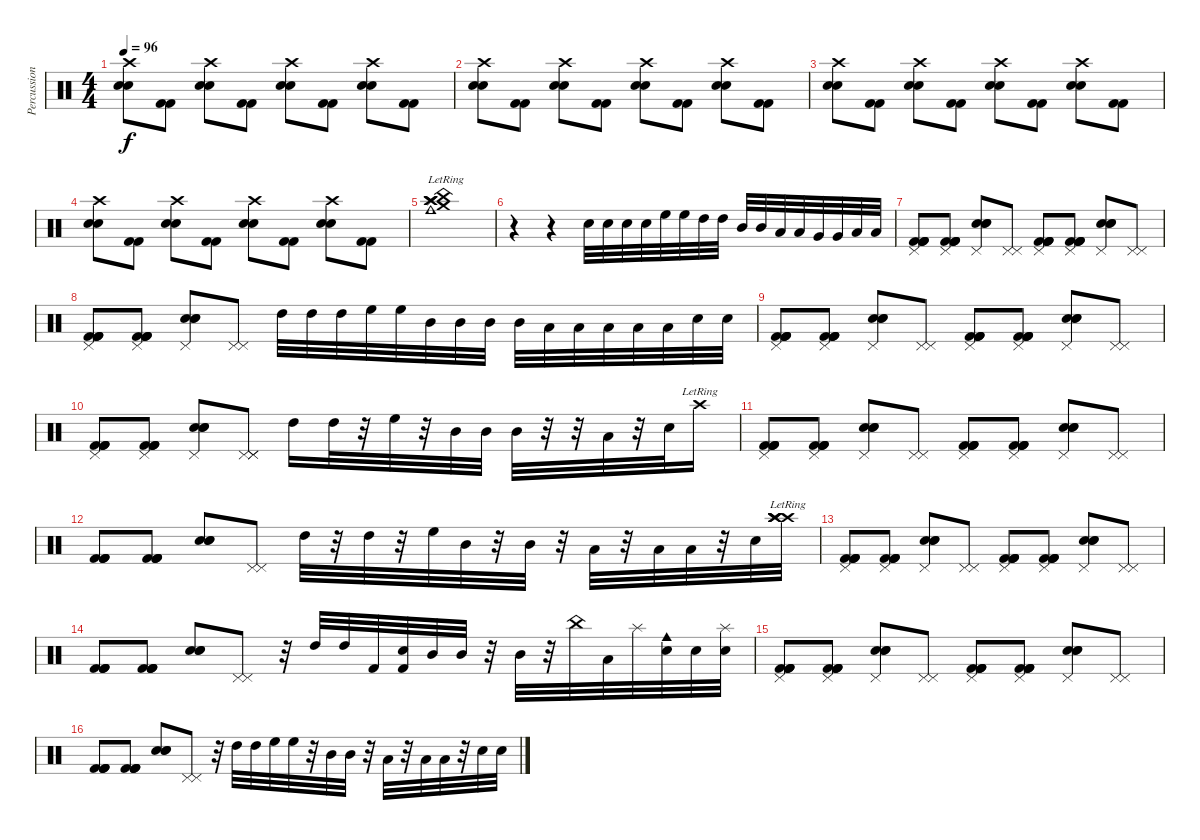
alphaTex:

\track ("Percussion" "Percussion") {instrument percussion}
\staff {score}
\articulation defaults
\ts (4 4)
\tempo 96
\clef neutral
\ks c
("Crash high (hit)" "Electric Snare (hit)" "Electric Snare (hit)").8{dy f} ("Kick (hit) 2" "Kick (hit) 2").8 ("Crash high (hit)" "Electric Snare (hit)" "Electric Snare (hit)").8 ("Kick (hit) 2" "Kick (hit) 2").8 ("Crash high (hit)" "Electric Snare (hit)" "Electric Snare (hit)").8 ("Kick (hit) 2" "Kick (hit) 2").8 ("Crash high (hit)" "Electric Snare (hit)" "Electric Snare (hit)").8 ("Kick (hit) 2" "Kick (hit) 2").8 |
("Crash high (hit)" "Electric Snare (hit)" "Electric Snare (hit)").8 ("Kick (hit) 2" "Kick (hit) 2").8 ("Crash high (hit)" "Electric Snare (hit)" "Electric Snare (hit)").8 ("Kick (hit) 2" "Kick (hit) 2").8 ("Crash high (hit)" "Electric Snare (hit)" "Electric Snare (hit)").8 ("Kick (hit) 2" "Kick (hit) 2").8 ("Crash high (hit)" "Electric Snare (hit)" "Electric Snare (hit)").8 ("Kick (hit) 2" "Kick (hit) 2").8 |
("Crash high (hit)" "Electric Snare (hit)" "Electric Snare (hit)").8 ("Kick (hit) 2" "Kick (hit) 2").8 ("Crash high (hit)" "Electric Snare (hit)" "Electric Snare (hit)").8 ("Kick (hit) 2" "Kick (hit) 2").8 ("Crash high (hit)" "Electric Snare (hit)" "Electric Snare (hit)").8 ("Kick (hit) 2" "Kick (hit) 2").8 ("Crash high (hit)" "Electric Snare (hit)" "Electric Snare (hit)").8 ("Kick (hit) 2" "Kick (hit) 2").8 |
("Crash high (hit)" "Electric Snare (hit)" "Electric Snare (hit)").8 ("Kick (hit) 2" "Kick (hit) 2").8 ("Crash high (hit)" "Electric Snare (hit)" "Electric Snare (hit)").8 ("Kick (hit) 2" "Kick (hit) 2").8 ("Crash high (hit)" "Electric Snare (hit)" "Electric Snare (hit)").8 ("Kick (hit) 2" "Kick (hit) 2").8 ("Crash high (hit)" "Electric Snare (hit)" "Electric Snare (hit)").8 ("Kick (hit) 2" "Kick (hit) 2").8 |
("Cowbell medium (hit)"{lr} "Crash high (hit)"{lr} "Crash high (hit)"{lr} "Crash medium (hit)"{lr} "China (hit)"{lr} "Splash (hit)"{lr}).1 |
r.4 r.4 "Electric Snare (hit)".32 "Electric Snare (hit)".32 "Electric Snare (hit)".32 "Electric Snare (hit)".32 "High Floor Tom (hit)".32 "High Floor Tom (hit)".32 "High Tom (hit)".32 "High Tom (hit)".32 "Mid Tom (hit)".32 "Mid Tom (hit)".32 "Low Tom (hit)".32 "Low Tom (hit)".32 "Very Low Tom (hit)".32 "Very Low Tom (hit)".32 "Low Floor Tom (hit)".32 "Low Floor Tom (hit)".32 |
("Pedal Hi-Hat (hit)" "Kick (hit) 2" "Kick (hit) 2" "Kick (hit) 2" "Kick (hit) 2").8 ("Pedal Hi-Hat (hit)" "Kick (hit) 2" "Kick (hit) 2" "Kick (hit) 2" "Kick (hit) 2").8 ("Pedal Hi-Hat (hit)" "Electric Snare (hit)" "Electric Snare (hit)" "Electric Snare (hit)").8 ("Pedal Hi-Hat (hit)" "Pedal Hi-Hat (hit)").8 ("Pedal Hi-Hat (hit)" "Kick (hit) 2" "Kick (hit) 2" "Kick (hit) 2" "Kick (hit) 2").8 ("Pedal Hi-Hat (hit)" "Kick (hit) 2" "Kick (hit) 2" "Kick (hit) 2" "Kick (hit) 2").8 ("Pedal Hi-Hat (hit)" "Electric Snare (hit)" "Electric Snare (hit)" "Electric Snare (hit)").8 ("Pedal Hi-Hat (hit)" "Pedal Hi-Hat (hit)").8 |
("Pedal Hi-Hat (hit)" "Kick (hit) 2" "Kick (hit) 2" "Kick (hit) 2" "Kick (hit) 2").8 ("Pedal Hi-Hat (hit)" "Kick (hit) 2" "Kick (hit) 2" "Kick (hit) 2" "Kick (hit) 2").8 ("Pedal Hi-Hat (hit)" "Electric Snare (hit)" "Electric Snare (hit)" "Electric Snare (hit)").8 ("Pedal Hi-Hat (hit)" "Pedal Hi-Hat (hit)").8 "High Tom (hit)".32 "High Tom (hit)".32 "High Tom (hit)".32 "High Floor Tom (hit)".32 "High Floor Tom (hit)".32 "Mid Tom (hit)".32 "Mid Tom (hit)".32 "Mid Tom (hit)".32 "Mid Tom (hit)".32 "Low Tom (hit)".32 "Low Tom (hit)".32 "Low Tom (hit)".32 "Low Floor Tom (hit)".32 "Low Floor Tom (hit)".32 "Electric Snare (hit)".32 "Electric Snare (hit)".32 |
("Pedal Hi-Hat (hit)" "Kick (hit) 2" "Kick (hit) 2" "Kick (hit) 2" "Kick (hit) 2").8 ("Pedal Hi-Hat (hit)" "Kick (hit) 2" "Kick (hit) 2" "Kick (hit) 2" "Kick (hit) 2").8 ("Pedal Hi-Hat (hit)" "Electric Snare (hit)" "Electric Snare (hit)" "Electric Snare (hit)").8 ("Pedal Hi-Hat (hit)" "Pedal Hi-Hat (hit)").8 ("Pedal Hi-Hat (hit)" "Kick (hit) 2" "Kick (hit) 2" "Kick (hit) 2" "Kick (hit) 2").8 ("Pedal Hi-Hat (hit)" "Kick (hit) 2" "Kick (hit) 2" "Kick (hit) 2" "Kick (hit) 2").8 ("Pedal Hi-Hat (hit)" "Electric Snare (hit)" "Electric Snare (hit)" "Electric Snare (hit)").8 ("Pedal Hi-Hat (hit)" "Pedal Hi-Hat (hit)").8 |
("Pedal Hi-Hat (hit)" "Kick (hit) 2" "Kick (hit) 2" "Kick (hit) 2" "Kick (hit) 2").8 ("Pedal Hi-Hat (hit)" "Kick (hit) 2" "Kick (hit) 2" "Kick (hit) 2" "Kick (hit) 2").8 ("Pedal Hi-Hat (hit)" "Electric Snare (hit)" "Electric Snare (hit)" "Electric Snare (hit)").8 ("Pedal Hi-Hat (hit)" "Pedal Hi-Hat (hit)" "Pedal Hi-Hat (hit)").8 "High Tom (hit)".16 "High Tom (hit)".32 r.32 "High Floor Tom (hit)".32 r.32 "Mid Tom (hit)".32 "Mid Tom (hit)".32 "Mid Tom (hit)".32 r.32 r.32 "Low Tom (hit)".32 r.32 "Electric Snare (hit)".32 "Crash high (hit)"{lr}.16 |
("Pedal Hi-Hat (hit)" "Kick (hit) 2" "Kick (hit) 2" "Kick (hit) 2" "Kick (hit) 2").8 ("Pedal Hi-Hat (hit)" "Kick (hit) 2" "Kick (hit) 2" "Kick (hit) 2" "Kick (hit) 2").8 ("Pedal Hi-Hat (hit)" "Electric Snare (hit)" "Electric Snare (hit)" "Electric Snare (hit)").8 ("Pedal Hi-Hat (hit)" "Pedal Hi-Hat (hit)").8 ("Pedal Hi-Hat (hit)" "Kick (hit) 2" "Kick (hit) 2" "Kick (hit) 2" "Kick (hit) 2").8 ("Pedal Hi-Hat (hit)" "Kick (hit) 2" "Kick (hit) 2" "Kick (hit) 2" "Kick (hit) 2").8 ("Pedal Hi-Hat (hit)" "Electric Snare (hit)" "Electric Snare (hit)" "Electric Snare (hit)").8 ("Pedal Hi-Hat (hit)" "Pedal Hi-Hat (hit)").8 |
("Kick (hit) 2" "Kick (hit) 2" "Kick (hit) 2" "Kick (hit) 2").8 ("Kick (hit) 2" "Kick (hit) 2" "Kick (hit) 2" "Kick (hit) 2").8 ("Electric Snare (hit)" "Electric Snare (hit)" "Electric Snare (hit)").8 ("Pedal Hi-Hat (hit)" "Pedal Hi-Hat (hit)").8 "High Tom (hit)".32 r.32 "High Tom (hit)".32 r.32 "High Floor Tom (hit)".32 "Mid Tom (hit)".32 r.32 "Mid Tom (hit)".32 r.32 "Low Tom (hit)".32 r.32 "Low Tom (hit)".32 "Low Floor Tom (hit)".32 r.32 "Electric Snare (hit)".32 ("Crash high (hit)"{lr} "Crash high (hit)"{lr} "Crash high (hit)"{lr} "Crash high (hit)"{lr}).32 |
("Pedal Hi-Hat (hit)" "Kick (hit) 2" "Kick (hit) 2" "Kick (hit) 2" "Kick (hit) 2").8 ("Pedal Hi-Hat (hit)" "Kick (hit) 2" "Kick (hit) 2" "Kick (hit) 2" "Kick (hit) 2").8 ("Pedal Hi-Hat (hit)" "Electric Snare (hit)" "Electric Snare (hit)" "Electric Snare (hit)").8 ("Pedal Hi-Hat (hit)" "Pedal Hi-Hat (hit)").8 ("Pedal Hi-Hat (hit)" "Kick (hit) 2" "Kick (hit) 2" "Kick (hit) 2" "Kick (hit) 2").8 ("Pedal Hi-Hat (hit)" "Kick (hit) 2" "Kick (hit) 2" "Kick (hit) 2" "Kick (hit) 2").8 ("Pedal Hi-Hat (hit)" "Electric Snare (hit)" "Electric Snare (hit)" "Electric Snare (hit)").8 ("Pedal Hi-Hat (hit)" "Pedal Hi-Hat (hit)").8 |
("Kick (hit) 2" "Kick (hit) 2" "Kick (hit) 2" "Kick (hit) 2").8 ("Kick (hit) 2" "Kick (hit) 2" "Kick (hit) 2" "Kick (hit) 2").8 ("Electric Snare (hit)" "Electric Snare (hit)" "Electric Snare (hit)").8 ("Pedal Hi-Hat (hit)" "Pedal Hi-Hat (hit)").8 r.32 "High Tom (hit)".32 "High Tom (hit)".32 "Kick (hit) 2".32 ("Electric Snare (hit)" "Kick (hit) 2").32 "Mid Tom (hit)".32 "Mid Tom (hit)".32 r.32 "Mid Tom (hit)".32 r.32 "China (hit)".32 "Low Tom (hit)".32 "Splash (hit)".32 ("Electric Snare (hit)" "Cowbell medium (hit)").32 "Electric Snare (hit)".32 ("Splash (hit)" "Electric Snare (hit)").32 |
("Pedal Hi-Hat (hit)" "Kick (hit) 2" "Kick (hit) 2" "Kick (hit) 2" "Kick (hit) 2").8 ("Pedal Hi-Hat (hit)" "Kick (hit) 2" "Kick (hit) 2" "Kick (hit) 2" "Kick (hit) 2").8 ("Pedal Hi-Hat (hit)" "Electric Snare (hit)" "Electric Snare (hit)" "Electric Snare (hit)").8 ("Pedal Hi-Hat (hit)" "Pedal Hi-Hat (hit)").8 ("Pedal Hi-Hat (hit)" "Kick (hit) 2" "Kick (hit) 2" "Kick (hit) 2" "Kick (hit) 2").8 ("Pedal Hi-Hat (hit)" "Kick (hit) 2" "Kick (hit) 2" "Kick (hit) 2" "Kick (hit) 2").8 ("Pedal Hi-Hat (hit)" "Electric Snare (hit)" "Electric Snare (hit)" "Electric Snare (hit)").8 ("Pedal Hi-Hat (hit)" "Pedal Hi-Hat (hit)").8 |
("Kick (hit) 2" "Kick (hit) 2" "Kick (hit) 2" "Kick (hit) 2").8 ("Kick (hit) 2" "Kick (hit) 2" "Kick (hit) 2" "Kick (hit) 2").8 ("Electric Snare (hit)" "Electric Snare (hit)" "Electric Snare (hit)").8 ("Pedal Hi-Hat (hit)" "Pedal Hi-Hat (hit)").8 r.32 "High Tom (hit)".32 "High Tom (hit)".32 "High Floor Tom (hit)".32 "High Floor Tom (hit)".32 r.32 "Mid Tom (hit)".32 "Mid Tom (hit)".32 r.32 "Low Floor Tom (hit)".32 r.32 "Low Tom (hit)".32 "Low Floor Tom (hit)".32 r.32 "Electric Snare (hit)".32 "Electric Snare (hit)".32
